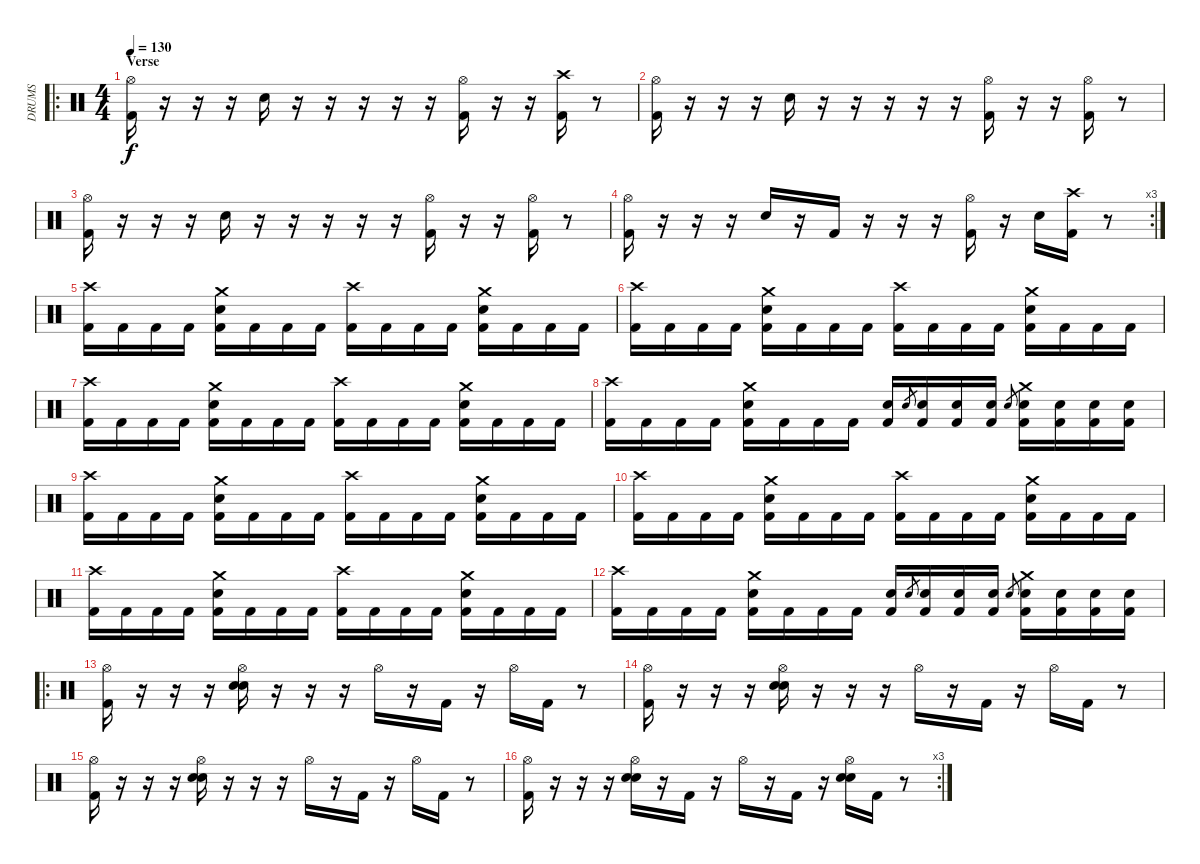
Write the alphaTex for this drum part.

\track ("DRUMS" "DRUMS") {instrument percussion}
\staff {score}
\articulation defaults
\ro
\ts (4 4)
\section ("" "Verse")
\tempo 130
\clef neutral
\ks c
("Kick (hit) 2" "Hi-Hat (open)").16{dy f} r.16 r.16 r.16 "Electric Snare (hit)".16 r.16 r.16 r.16 r.16 r.16 ("Kick (hit) 2" "Hi-Hat (open)").16 r.16 r.16 ("Kick (hit) 2" "Crash high (hit)").16 r.8 |
("Kick (hit) 2" "Hi-Hat (open)").16 r.16 r.16 r.16 "Electric Snare (hit)".16 r.16 r.16 r.16 r.16 r.16 ("Kick (hit) 2" "Hi-Hat (open)").16 r.16 r.16 ("Kick (hit) 2" "Hi-Hat (open)").16 r.8 |
("Kick (hit) 2" "Hi-Hat (open)").16 r.16 r.16 r.16 "Electric Snare (hit)".16 r.16 r.16 r.16 r.16 r.16 ("Kick (hit) 2" "Hi-Hat (open)").16 r.16 r.16 ("Kick (hit) 2" "Hi-Hat (open)").16 r.8 |
\rc 3
("Kick (hit) 2" "Hi-Hat (open)").16 r.16 r.16 r.16 "Electric Snare (hit)".16 r.16 "Kick (hit) 2".16 r.16 r.16 r.16 ("Kick (hit) 2" "Hi-Hat (open)").16 r.16 "Electric Snare (hit)".16 ("Kick (hit) 2" "Crash high (hit)").16 r.8 |
("Kick (hit) 2" "Crash high (hit)").16 "Kick (hit) 2".16 "Kick (hit) 2".16 "Kick (hit) 2".16 ("Kick (hit) 2" "Crash medium (hit)" "Electric Snare (hit)").16 "Kick (hit) 2".16 "Kick (hit) 2".16 "Kick (hit) 2".16 ("Kick (hit) 2" "Crash high (hit)").16 "Kick (hit) 2".16 "Kick (hit) 2".16 "Kick (hit) 2".16 ("Kick (hit) 2" "Crash medium (hit)" "Electric Snare (hit)").16 "Kick (hit) 2".16 "Kick (hit) 2".16 "Kick (hit) 2".16 |
("Kick (hit) 2" "Crash high (hit)").16 "Kick (hit) 2".16 "Kick (hit) 2".16 "Kick (hit) 2".16 ("Kick (hit) 2" "Crash medium (hit)" "Electric Snare (hit)").16 "Kick (hit) 2".16 "Kick (hit) 2".16 "Kick (hit) 2".16 ("Kick (hit) 2" "Crash high (hit)").16 "Kick (hit) 2".16 "Kick (hit) 2".16 "Kick (hit) 2".16 ("Kick (hit) 2" "Crash medium (hit)" "Electric Snare (hit)").16 "Kick (hit) 2".16 "Kick (hit) 2".16 "Kick (hit) 2".16 |
("Kick (hit) 2" "Crash high (hit)").16 "Kick (hit) 2".16 "Kick (hit) 2".16 "Kick (hit) 2".16 ("Kick (hit) 2" "Crash medium (hit)" "Electric Snare (hit)").16 "Kick (hit) 2".16 "Kick (hit) 2".16 "Kick (hit) 2".16 ("Kick (hit) 2" "Crash high (hit)").16 "Kick (hit) 2".16 "Kick (hit) 2".16 "Kick (hit) 2".16 ("Kick (hit) 2" "Crash medium (hit)" "Electric Snare (hit)").16 "Kick (hit) 2".16 "Kick (hit) 2".16 "Kick (hit) 2".16 |
("Kick (hit) 2" "Crash high (hit)").16 "Kick (hit) 2".16 "Kick (hit) 2".16 "Kick (hit) 2".16 ("Kick (hit) 2" "Crash medium (hit)" "Electric Snare (hit)").16 "Kick (hit) 2".16 "Kick (hit) 2".16 "Kick (hit) 2".16 ("Kick (hit) 2" "Electric Snare (hit)").16 "Electric Snare (hit)".8{gr} ("Kick (hit) 2" "Electric Snare (hit)").16 ("Kick (hit) 2" "Electric Snare (hit)").16 ("Kick (hit) 2" "Electric Snare (hit)").16 "Electric Snare (hit)".8{gr} ("Kick (hit) 2" "Crash medium (hit)" "Electric Snare (hit)").16 ("Kick (hit) 2" "Electric Snare (hit)").16 ("Kick (hit) 2" "Electric Snare (hit)").16 ("Kick (hit) 2" "Electric Snare (hit)").16 |
("Kick (hit) 2" "Crash high (hit)").16 "Kick (hit) 2".16 "Kick (hit) 2".16 "Kick (hit) 2".16 ("Kick (hit) 2" "Crash medium (hit)" "Electric Snare (hit)").16 "Kick (hit) 2".16 "Kick (hit) 2".16 "Kick (hit) 2".16 ("Kick (hit) 2" "Crash high (hit)").16 "Kick (hit) 2".16 "Kick (hit) 2".16 "Kick (hit) 2".16 ("Kick (hit) 2" "Crash medium (hit)" "Electric Snare (hit)").16 "Kick (hit) 2".16 "Kick (hit) 2".16 "Kick (hit) 2".16 |
("Kick (hit) 2" "Crash high (hit)").16 "Kick (hit) 2".16 "Kick (hit) 2".16 "Kick (hit) 2".16 ("Kick (hit) 2" "Crash medium (hit)" "Electric Snare (hit)").16 "Kick (hit) 2".16 "Kick (hit) 2".16 "Kick (hit) 2".16 ("Kick (hit) 2" "Crash high (hit)").16 "Kick (hit) 2".16 "Kick (hit) 2".16 "Kick (hit) 2".16 ("Kick (hit) 2" "Crash medium (hit)" "Electric Snare (hit)").16 "Kick (hit) 2".16 "Kick (hit) 2".16 "Kick (hit) 2".16 |
("Kick (hit) 2" "Crash high (hit)").16 "Kick (hit) 2".16 "Kick (hit) 2".16 "Kick (hit) 2".16 ("Kick (hit) 2" "Crash medium (hit)" "Electric Snare (hit)").16 "Kick (hit) 2".16 "Kick (hit) 2".16 "Kick (hit) 2".16 ("Kick (hit) 2" "Crash high (hit)").16 "Kick (hit) 2".16 "Kick (hit) 2".16 "Kick (hit) 2".16 ("Kick (hit) 2" "Crash medium (hit)" "Electric Snare (hit)").16 "Kick (hit) 2".16 "Kick (hit) 2".16 "Kick (hit) 2".16 |
("Kick (hit) 2" "Crash high (hit)").16 "Kick (hit) 2".16 "Kick (hit) 2".16 "Kick (hit) 2".16 ("Kick (hit) 2" "Crash medium (hit)" "Electric Snare (hit)").16 "Kick (hit) 2".16 "Kick (hit) 2".16 "Kick (hit) 2".16 ("Kick (hit) 2" "Electric Snare (hit)").16 "Electric Snare (hit)".8{gr} ("Kick (hit) 2" "Electric Snare (hit)").16 ("Kick (hit) 2" "Electric Snare (hit)").16 ("Kick (hit) 2" "Electric Snare (hit)").16 "Electric Snare (hit)".8{gr} ("Kick (hit) 2" "Crash medium (hit)" "Electric Snare (hit)").16 ("Kick (hit) 2" "Electric Snare (hit)").16 ("Kick (hit) 2" "Electric Snare (hit)").16 ("Kick (hit) 2" "Electric Snare (hit)").16 |
\ro
("Kick (hit) 2" "Hi-Hat (open)").16 r.16 r.16 r.16 ("Hi-Hat (open)" "Electric Snare (hit)" "Electric Snare (hit)").16 r.16 r.16 r.16 "Hi-Hat (open)".16 r.16 "Kick (hit) 2".16 r.16 "Hi-Hat (open)".16 "Kick (hit) 2".16 r.8 |
("Kick (hit) 2" "Hi-Hat (open)").16 r.16 r.16 r.16 ("Hi-Hat (open)" "Electric Snare (hit)" "Electric Snare (hit)").16 r.16 r.16 r.16 "Hi-Hat (open)".16 r.16 "Kick (hit) 2".16 r.16 "Hi-Hat (open)".16 "Kick (hit) 2".16 r.8 |
("Kick (hit) 2" "Hi-Hat (open)").16 r.16 r.16 r.16 ("Hi-Hat (open)" "Electric Snare (hit)" "Electric Snare (hit)").16 r.16 r.16 r.16 "Hi-Hat (open)".16 r.16 "Kick (hit) 2".16 r.16 "Hi-Hat (open)".16 "Kick (hit) 2".16 r.8 |
\rc 3
("Kick (hit) 2" "Hi-Hat (open)").16 r.16 r.16 r.16 ("Hi-Hat (open)" "Electric Snare (hit)" "Electric Snare (hit)").16 r.16 "Kick (hit) 2".16 r.16 "Hi-Hat (open)".16 r.16 "Kick (hit) 2".16 r.16 ("Hi-Hat (open)" "Electric Snare (hit)" "Electric Snare (hit)").16 "Kick (hit) 2".16 r.8
